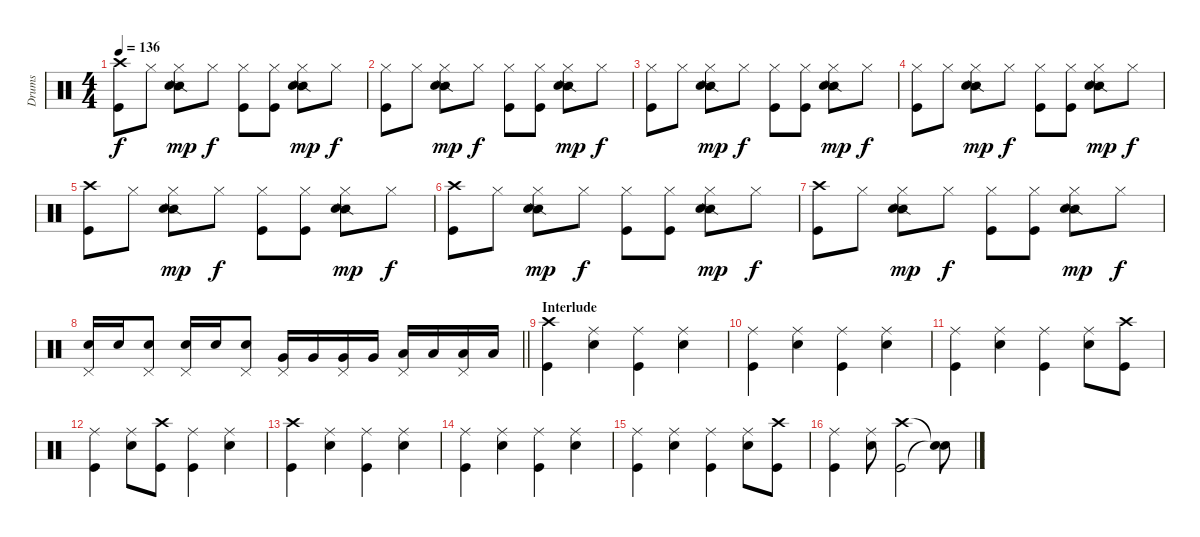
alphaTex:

\track ("Drums" "Drums") {instrument percussion}
\staff {score}
\articulation defaults
\ts (4 4)
\tempo 136
\clef neutral
\ks c
("Crash high (hit)" "Kick (hit)").8{dy f} "Hi-Hat (closed)".8 ("Hi-Hat (closed)" "Snare (side stick) 2" "Snare (hit) 2").8{dy mp} "Hi-Hat (closed)".8{dy f} ("Hi-Hat (closed)" "Kick (hit)").8 ("Hi-Hat (closed)" "Kick (hit)").8 ("Hi-Hat (closed)" "Snare (side stick) 2" "Snare (hit) 2").8{dy mp} "Hi-Hat (closed)".8{dy f} |
("Hi-Hat (closed)" "Kick (hit)").8 "Hi-Hat (closed)".8 ("Hi-Hat (closed)" "Snare (side stick) 2" "Snare (hit) 2").8{dy mp} "Hi-Hat (closed)".8{dy f} ("Hi-Hat (closed)" "Kick (hit)").8 ("Hi-Hat (closed)" "Kick (hit)").8 ("Hi-Hat (closed)" "Snare (side stick) 2" "Snare (hit) 2").8{dy mp} "Hi-Hat (closed)".8{dy f} |
("Hi-Hat (closed)" "Kick (hit)").8 "Hi-Hat (closed)".8 ("Hi-Hat (closed)" "Snare (side stick) 2" "Snare (hit) 2").8{dy mp} "Hi-Hat (closed)".8{dy f} ("Hi-Hat (closed)" "Kick (hit)").8 ("Hi-Hat (closed)" "Kick (hit)").8 ("Hi-Hat (closed)" "Snare (side stick) 2" "Snare (hit) 2").8{dy mp} "Hi-Hat (closed)".8{dy f} |
("Hi-Hat (closed)" "Kick (hit)").8 "Hi-Hat (closed)".8 ("Hi-Hat (closed)" "Snare (side stick) 2" "Snare (hit) 2").8{dy mp} "Hi-Hat (closed)".8{dy f} ("Hi-Hat (closed)" "Kick (hit)").8 ("Hi-Hat (closed)" "Kick (hit)").8 ("Hi-Hat (closed)" "Snare (side stick) 2" "Snare (hit) 2").8{dy mp} "Hi-Hat (closed)".8{dy f} |
("Crash high (hit)" "Kick (hit)").8 "Hi-Hat (closed)".8 ("Hi-Hat (closed)" "Snare (side stick) 2" "Snare (hit) 2").8{dy mp} "Hi-Hat (closed)".8{dy f} ("Hi-Hat (closed)" "Kick (hit)").8 ("Hi-Hat (closed)" "Kick (hit)").8 ("Hi-Hat (closed)" "Snare (side stick) 2" "Snare (hit) 2").8{dy mp} "Hi-Hat (closed)".8{dy f} |
("Crash high (hit)" "Kick (hit)").8 "Hi-Hat (closed)".8 ("Hi-Hat (closed)" "Snare (side stick) 2" "Snare (hit) 2").8{dy mp} "Hi-Hat (closed)".8{dy f} ("Hi-Hat (closed)" "Kick (hit)").8 ("Hi-Hat (closed)" "Kick (hit)").8 ("Hi-Hat (closed)" "Snare (side stick) 2" "Snare (hit) 2").8{dy mp} "Hi-Hat (closed)".8{dy f} |
("Crash high (hit)" "Kick (hit)").8 "Hi-Hat (closed)".8 ("Hi-Hat (closed)" "Snare (side stick) 2" "Snare (hit) 2").8{dy mp} "Hi-Hat (closed)".8{dy f} ("Hi-Hat (closed)" "Kick (hit)").8 ("Hi-Hat (closed)" "Kick (hit)").8 ("Hi-Hat (closed)" "Snare (side stick) 2" "Snare (hit) 2").8{dy mp} "Hi-Hat (closed)".8{dy f} |
\barLineRight lightlight
("Pedal Hi-Hat (hit)" "Snare (hit) 2").16 "Snare (hit) 2".16 ("Pedal Hi-Hat (hit)" "Snare (hit) 2").8 ("Pedal Hi-Hat (hit)" "Snare (hit) 2").16 "Snare (hit) 2".16 ("Pedal Hi-Hat (hit)" "Snare (hit) 2").8 ("Pedal Hi-Hat (hit)" "Very Low Tom (hit)").16 "Very Low Tom (hit)".16 ("Pedal Hi-Hat (hit)" "Very Low Tom (hit)").16 "Very Low Tom (hit)".16 ("Pedal Hi-Hat (hit)" "Low Floor Tom (hit)").16 "Low Floor Tom (hit)".16 ("Pedal Hi-Hat (hit)" "Low Floor Tom (hit)").16 "Low Floor Tom (hit)".16 |
\section ("" "Interlude")
("Crash high (hit)" "Kick (hit)").4 ("Ride (middle)" "Snare (hit) 2").4 ("Ride (middle)" "Kick (hit)").4 ("Ride (middle)" "Snare (hit) 2").4 |
("Ride (middle)" "Kick (hit)").4 ("Ride (middle)" "Snare (hit) 2").4 ("Ride (middle)" "Kick (hit)").4 ("Ride (middle)" "Snare (hit) 2").4 |
("Ride (middle)" "Kick (hit)").4 ("Ride (middle)" "Snare (hit) 2").4 ("Ride (middle)" "Kick (hit)").4 ("Ride (middle)" "Snare (hit) 2").8 ("Crash high (hit)" "Kick (hit)").8 |
("Ride (middle)" "Kick (hit)").4 ("Ride (middle)" "Snare (hit) 2").8 ("Crash high (hit)" "Kick (hit)").8 ("Ride (middle)" "Kick (hit)").4 ("Ride (middle)" "Snare (hit) 2").4 |
("Crash high (hit)" "Kick (hit)").4 ("Ride (middle)" "Snare (hit) 2").4 ("Ride (middle)" "Kick (hit)").4 ("Ride (middle)" "Snare (hit) 2").4 |
("Ride (middle)" "Kick (hit)").4 ("Ride (middle)" "Snare (hit) 2").4 ("Ride (middle)" "Kick (hit)").4 ("Ride (middle)" "Snare (hit) 2").4 |
("Ride (middle)" "Kick (hit)").4 ("Ride (middle)" "Snare (hit) 2").4 ("Ride (middle)" "Kick (hit)").4 ("Ride (middle)" "Snare (hit) 2").8 ("Crash high (hit)" "Kick (hit)").8 |
("Ride (middle)" "Kick (hit)").4 ("Ride (middle)" "Snare (hit) 2").8 ("Crash high (hit)" "Kick (hit)").2 ("Snare (hit)"{t} "Snare (hit)"{t}).8
